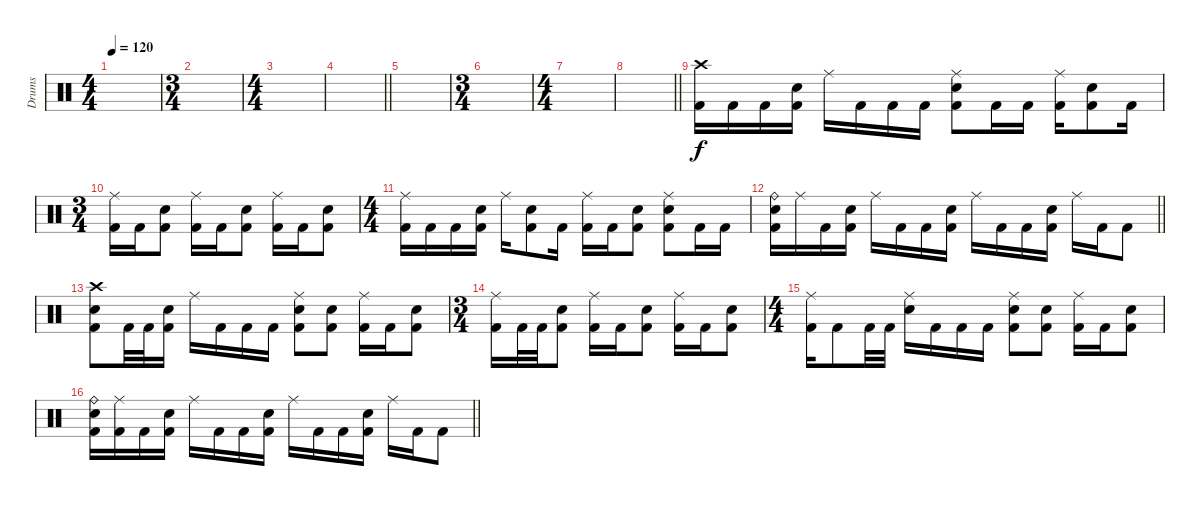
\track ("Drums" "Drums") {instrument percussion}
\staff
\articulation defaults
\ts (4 4)
\tempo 120
\clef neutral
\ks c
|
\ts (3 4)
|
\ts (4 4)
|
\barLineRight lightlight
|
|
\ts (3 4)
|
\ts (4 4)
|
\barLineRight lightlight
|
\section ("" "")
("Crash high (hit)" "Kick (hit) 2").16 "Kick (hit) 2".16 "Kick (hit) 2".16 ("Electric Snare (hit)" "Kick (hit) 2").16 "Ride (middle)".16 "Kick (hit) 2".16 "Kick (hit) 2".16 "Kick (hit) 2".16 ("Ride (middle)" "Electric Snare (hit)" "Kick (hit) 2").8 "Kick (hit) 2".16 "Kick (hit) 2".16 ("Ride (middle)" "Kick (hit) 2").16 ("Electric Snare (hit)" "Kick (hit) 2").8 "Kick (hit) 2".16 |
\ts (3 4)
("Ride (middle)" "Kick (hit) 2").16 "Kick (hit) 2".16 ("Electric Snare (hit)" "Kick (hit) 2").8 ("Ride (middle)" "Kick (hit) 2").16 "Kick (hit) 2".16 ("Electric Snare (hit)" "Kick (hit) 2").8 ("Ride (middle)" "Kick (hit) 2").16 "Kick (hit) 2".16 ("Electric Snare (hit)" "Kick (hit) 2").8 |
\ts (4 4)
("Ride (middle)" "Kick (hit) 2").16 "Kick (hit) 2".16 "Kick (hit) 2".16 ("Electric Snare (hit)" "Kick (hit) 2").16 "Ride (middle)".16 ("Electric Snare (hit)" "Kick (hit) 2").8 "Kick (hit) 2".16 ("Ride (middle)" "Kick (hit) 2").16 "Kick (hit) 2".16 ("Electric Snare (hit)" "Kick (hit) 2").8 ("Ride (middle)" "Electric Snare (hit)" "Kick (hit) 2").8 "Kick (hit) 2".16 "Kick (hit) 2".16 |
\barLineRight lightlight
("Ride (bell)" "Electric Snare (hit)" "Kick (hit) 2").16 "Ride (middle)".16 "Kick (hit) 2".16 ("Electric Snare (hit)" "Kick (hit) 2").16 "Ride (middle)".16 "Kick (hit) 2".16 "Kick (hit) 2".16 ("Electric Snare (hit)" "Kick (hit) 2").16 "Ride (middle)".16 "Kick (hit) 2".16 "Kick (hit) 2".16 ("Electric Snare (hit)" "Kick (hit) 2").16 "Ride (middle)".16 "Kick (hit) 2".16 "Kick (hit) 2".8 |
("Crash high (hit)" "Electric Snare (hit)" "Kick (hit) 2").8 "Kick (hit) 2".32 "Kick (hit) 2".32 ("Electric Snare (hit)" "Kick (hit) 2").16 "Ride (middle)".16 "Kick (hit) 2".16 "Kick (hit) 2".16 "Kick (hit) 2".16 ("Ride (middle)" "Electric Snare (hit)" "Kick (hit) 2").8 ("Electric Snare (hit)" "Kick (hit) 2").8 ("Ride (middle)" "Kick (hit) 2").16 "Kick (hit) 2".16 ("Electric Snare (hit)" "Kick (hit) 2").8 |
\ts (3 4)
("Ride (middle)" "Kick (hit) 2").16 "Kick (hit) 2".32 "Kick (hit) 2".32 ("Electric Snare (hit)" "Kick (hit) 2").8 ("Ride (middle)" "Kick (hit) 2").16 "Kick (hit) 2".16 ("Electric Snare (hit)" "Kick (hit) 2").8 ("Ride (middle)" "Kick (hit) 2").16 "Kick (hit) 2".16 ("Electric Snare (hit)" "Kick (hit) 2").8 |
\ts (4 4)
("Ride (middle)" "Kick (hit) 2").16 "Kick (hit) 2".8 "Kick (hit) 2".32 "Kick (hit) 2".32 ("Ride (middle)" "Electric Snare (hit)").16 "Kick (hit) 2".16 "Kick (hit) 2".16 "Kick (hit) 2".16 ("Ride (middle)" "Electric Snare (hit)" "Kick (hit) 2").8 ("Electric Snare (hit)" "Kick (hit) 2").8 ("Ride (middle)" "Kick (hit) 2").16 "Kick (hit) 2".16 ("Electric Snare (hit)" "Kick (hit) 2").8 |
\barLineRight lightlight
("Ride (bell)" "Electric Snare (hit)" "Kick (hit) 2").16 ("Ride (middle)" "Kick (hit) 2").16 "Kick (hit) 2".16 ("Electric Snare (hit)" "Kick (hit) 2").16 "Ride (middle)".16 "Kick (hit) 2".16 "Kick (hit) 2".16 ("Electric Snare (hit)" "Kick (hit) 2").16 "Ride (middle)".16 "Kick (hit) 2".16 "Kick (hit) 2".16 ("Electric Snare (hit)" "Kick (hit) 2").16 "Ride (middle)".16 "Kick (hit) 2".16 "Kick (hit) 2".8
